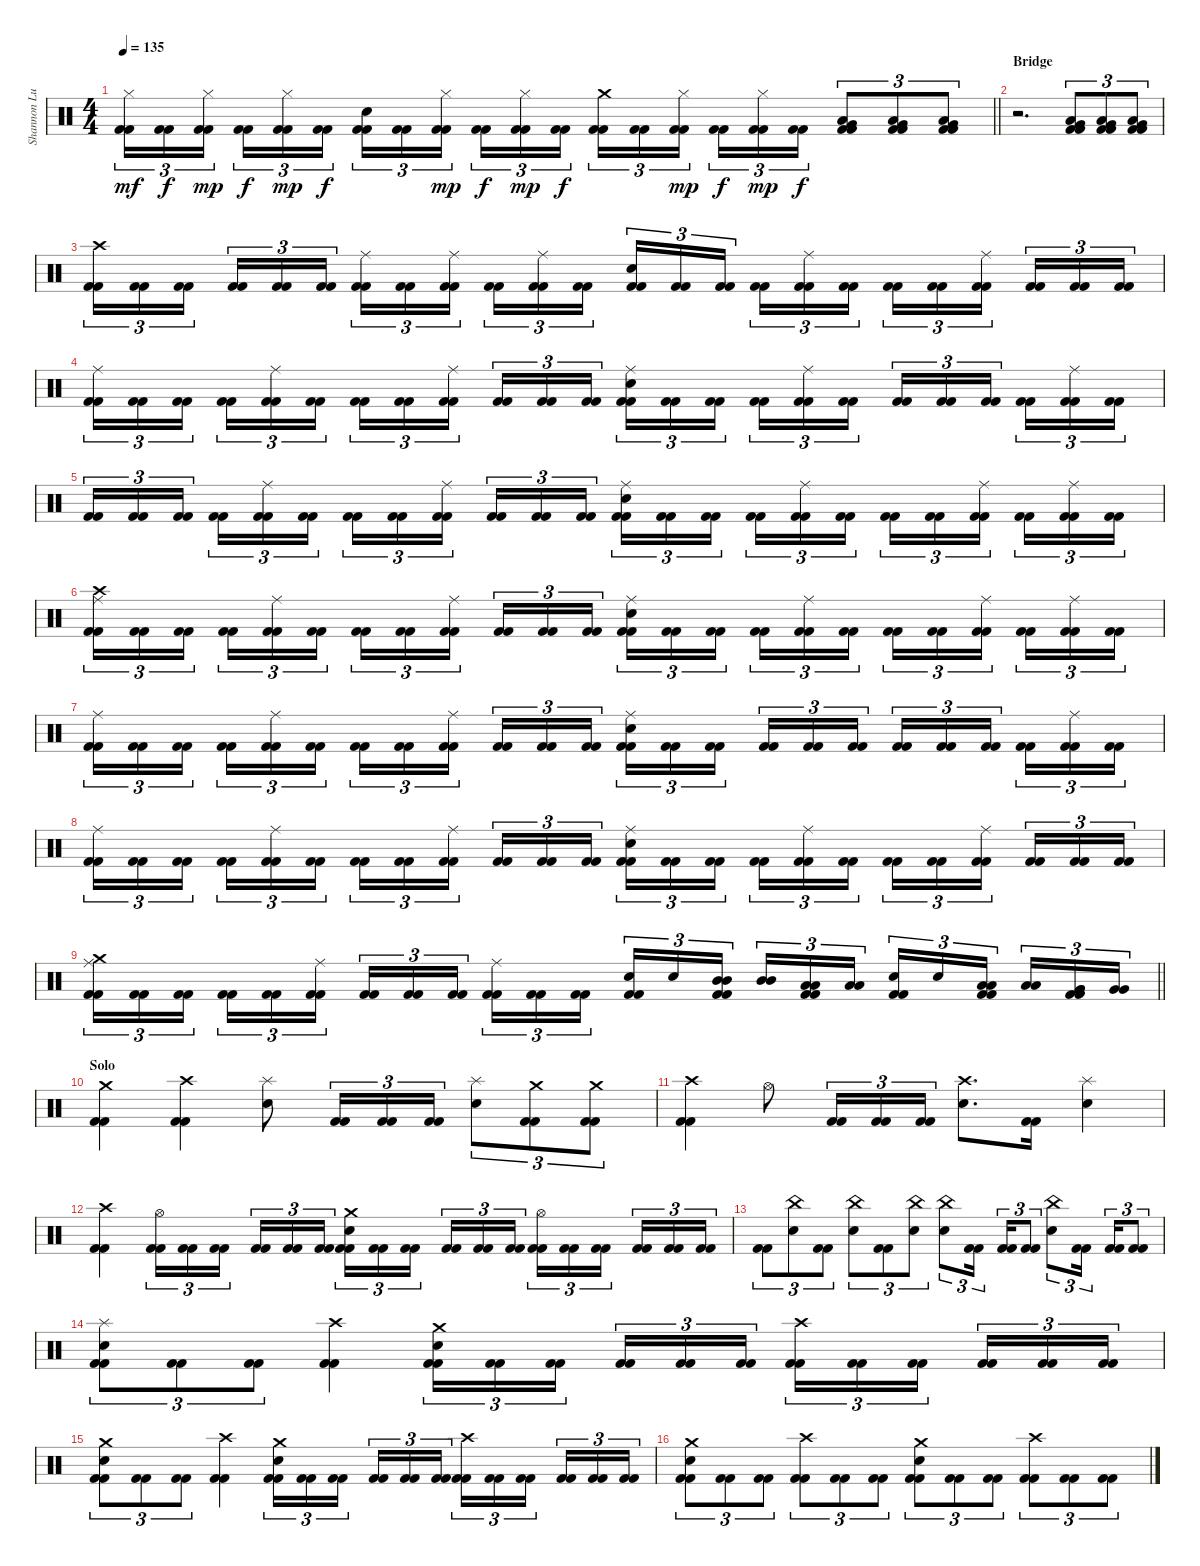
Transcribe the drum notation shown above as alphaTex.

\track ("Shannon Lucas" "Shannon Lu") {instrument percussion}
\staff {score}
\articulation defaults
\ts (4 4)
\tempo 135
\clef neutral
\barLineRight lightlight
\ks c
("Hi-Hat (closed)" "Kick (hit) 2" "Kick (hit) 2").16{tu (3 2) dy mf} ("Kick (hit) 2" "Kick (hit) 2").16{tu (3 2) dy f} ("Hi-Hat (closed)" "Kick (hit) 2" "Kick (hit) 2").16{tu (3 2) dy mp beam splitsecondary} ("Kick (hit) 2" "Kick (hit) 2").16{tu (3 2) dy f} ("Hi-Hat (closed)" "Kick (hit) 2" "Kick (hit) 2").16{tu (3 2) dy mp} ("Kick (hit) 2" "Kick (hit) 2").16{tu (3 2) dy f} ("Electric Snare (hit)" "Kick (hit) 2" "Kick (hit) 2").16{tu (3 2)} ("Kick (hit) 2" "Kick (hit) 2").16{tu (3 2)} ("Hi-Hat (closed)" "Kick (hit) 2" "Kick (hit) 2").16{tu (3 2) dy mp beam splitsecondary} ("Kick (hit) 2" "Kick (hit) 2").16{tu (3 2) dy f} ("Hi-Hat (closed)" "Kick (hit) 2" "Kick (hit) 2").16{tu (3 2) dy mp} ("Kick (hit) 2" "Kick (hit) 2").16{tu (3 2) dy f} ("Crash medium (hit)" "Kick (hit) 2" "Kick (hit) 2").16{tu (3 2)} ("Kick (hit) 2" "Kick (hit) 2").16{tu (3 2)} ("Hi-Hat (closed)" "Kick (hit) 2" "Kick (hit) 2").16{tu (3 2) dy mp beam splitsecondary} ("Kick (hit) 2" "Kick (hit) 2").16{tu (3 2) dy f} ("Hi-Hat (closed)" "Kick (hit) 2" "Kick (hit) 2").16{tu (3 2) dy mp} ("Kick (hit) 2" "Kick (hit) 2").16{tu (3 2) dy f} ("Very Low Tom (hit)" "Low Tom (hit)" "Kick (hit) 2" "Kick (hit) 2").8{tu (3 2)} ("Very Low Tom (hit)" "Low Floor Tom (hit)" "Kick (hit) 2" "Kick (hit) 2").8{tu (3 2)} ("Very Low Tom (hit)" "Low Tom (hit)" "Kick (hit) 2" "Kick (hit) 2").8{tu (3 2)} |
\section ("" "Bridge")
r.2{d} ("Very Low Tom (hit)" "Low Tom (hit)" "Kick (hit) 2" "Kick (hit) 2").8{tu (3 2)} ("Very Low Tom (hit)" "Low Floor Tom (hit)" "Kick (hit) 2" "Kick (hit) 2").8{tu (3 2)} ("Very Low Tom (hit)" "Low Tom (hit)" "Kick (hit) 2" "Kick (hit) 2").8{tu (3 2)} |
("Crash high (hit)" "Kick (hit) 2" "Kick (hit) 2").16{tu (3 2)} ("Kick (hit) 2" "Kick (hit) 2").16{tu (3 2)} ("Kick (hit) 2" "Kick (hit) 2").16{tu (3 2) beam splitsecondary} ("Kick (hit) 2" "Kick (hit) 2").16{tu (3 2)} ("Kick (hit) 2" "Kick (hit) 2").16{tu (3 2)} ("Kick (hit) 2" "Kick (hit) 2").16{tu (3 2)} ("Ride (middle)" "Kick (hit) 2" "Kick (hit) 2").16{tu (3 2)} ("Kick (hit) 2" "Kick (hit) 2").16{tu (3 2)} ("Ride (middle)" "Kick (hit) 2" "Kick (hit) 2").16{tu (3 2) beam splitsecondary} ("Kick (hit) 2" "Kick (hit) 2").16{tu (3 2)} ("Ride (middle)" "Kick (hit) 2" "Kick (hit) 2").16{tu (3 2)} ("Kick (hit) 2" "Kick (hit) 2").16{tu (3 2)} ("Electric Snare (hit)" "Kick (hit) 2" "Kick (hit) 2").16{tu (3 2)} ("Kick (hit) 2" "Kick (hit) 2").16{tu (3 2)} ("Kick (hit) 2" "Kick (hit) 2").16{tu (3 2) beam splitsecondary} ("Kick (hit) 2" "Kick (hit) 2").16{tu (3 2)} ("Ride (middle)" "Kick (hit) 2" "Kick (hit) 2").16{tu (3 2)} ("Kick (hit) 2" "Kick (hit) 2").16{tu (3 2)} ("Kick (hit) 2" "Kick (hit) 2").16{tu (3 2)} ("Kick (hit) 2" "Kick (hit) 2").16{tu (3 2)} ("Ride (middle)" "Kick (hit) 2" "Kick (hit) 2").16{tu (3 2) beam splitsecondary} ("Kick (hit) 2" "Kick (hit) 2").16{tu (3 2)} ("Kick (hit) 2" "Kick (hit) 2").16{tu (3 2)} ("Kick (hit) 2" "Kick (hit) 2").16{tu (3 2)} |
("Ride (middle)" "Kick (hit) 2" "Kick (hit) 2").16{tu (3 2)} ("Kick (hit) 2" "Kick (hit) 2").16{tu (3 2)} ("Kick (hit) 2" "Kick (hit) 2").16{tu (3 2) beam splitsecondary} ("Kick (hit) 2" "Kick (hit) 2").16{tu (3 2)} ("Ride (middle)" "Kick (hit) 2" "Kick (hit) 2").16{tu (3 2)} ("Kick (hit) 2" "Kick (hit) 2").16{tu (3 2)} ("Kick (hit) 2" "Kick (hit) 2").16{tu (3 2)} ("Kick (hit) 2" "Kick (hit) 2").16{tu (3 2)} ("Ride (middle)" "Kick (hit) 2" "Kick (hit) 2").16{tu (3 2) beam splitsecondary} ("Kick (hit) 2" "Kick (hit) 2").16{tu (3 2)} ("Kick (hit) 2" "Kick (hit) 2").16{tu (3 2)} ("Kick (hit) 2" "Kick (hit) 2").16{tu (3 2)} ("Ride (middle)" "Electric Snare (hit)" "Kick (hit) 2" "Kick (hit) 2").16{tu (3 2)} ("Kick (hit) 2" "Kick (hit) 2").16{tu (3 2)} ("Kick (hit) 2" "Kick (hit) 2").16{tu (3 2) beam splitsecondary} ("Kick (hit) 2" "Kick (hit) 2").16{tu (3 2)} ("Ride (middle)" "Kick (hit) 2" "Kick (hit) 2").16{tu (3 2)} ("Kick (hit) 2" "Kick (hit) 2").16{tu (3 2)} ("Kick (hit) 2" "Kick (hit) 2").16{tu (3 2)} ("Kick (hit) 2" "Kick (hit) 2").16{tu (3 2)} ("Kick (hit) 2" "Kick (hit) 2").16{tu (3 2) beam splitsecondary} ("Kick (hit) 2" "Kick (hit) 2").16{tu (3 2)} ("Ride (middle)" "Kick (hit) 2" "Kick (hit) 2").16{tu (3 2)} ("Kick (hit) 2" "Kick (hit) 2").16{tu (3 2)} |
("Kick (hit) 2" "Kick (hit) 2").16{tu (3 2)} ("Kick (hit) 2" "Kick (hit) 2").16{tu (3 2)} ("Kick (hit) 2" "Kick (hit) 2").16{tu (3 2) beam splitsecondary} ("Kick (hit) 2" "Kick (hit) 2").16{tu (3 2)} ("Ride (middle)" "Kick (hit) 2" "Kick (hit) 2").16{tu (3 2)} ("Kick (hit) 2" "Kick (hit) 2").16{tu (3 2)} ("Kick (hit) 2" "Kick (hit) 2").16{tu (3 2)} ("Kick (hit) 2" "Kick (hit) 2").16{tu (3 2)} ("Ride (middle)" "Kick (hit) 2" "Kick (hit) 2").16{tu (3 2) beam splitsecondary} ("Kick (hit) 2" "Kick (hit) 2").16{tu (3 2)} ("Kick (hit) 2" "Kick (hit) 2").16{tu (3 2)} ("Kick (hit) 2" "Kick (hit) 2").16{tu (3 2)} ("Ride (middle)" "Electric Snare (hit)" "Kick (hit) 2" "Kick (hit) 2").16{tu (3 2)} ("Kick (hit) 2" "Kick (hit) 2").16{tu (3 2)} ("Kick (hit) 2" "Kick (hit) 2").16{tu (3 2) beam splitsecondary} ("Kick (hit) 2" "Kick (hit) 2").16{tu (3 2)} ("Ride (middle)" "Kick (hit) 2" "Kick (hit) 2").16{tu (3 2)} ("Kick (hit) 2" "Kick (hit) 2").16{tu (3 2)} ("Kick (hit) 2" "Kick (hit) 2").16{tu (3 2)} ("Kick (hit) 2" "Kick (hit) 2").16{tu (3 2)} ("Ride (middle)" "Kick (hit) 2" "Kick (hit) 2").16{tu (3 2) beam splitsecondary} ("Kick (hit) 2" "Kick (hit) 2").16{tu (3 2)} ("Ride (middle)" "Kick (hit) 2" "Kick (hit) 2").16{tu (3 2)} ("Kick (hit) 2" "Kick (hit) 2").16{tu (3 2)} |
("Crash high (hit)" "Ride (middle)" "Kick (hit) 2" "Kick (hit) 2").16{tu (3 2)} ("Kick (hit) 2" "Kick (hit) 2").16{tu (3 2)} ("Kick (hit) 2" "Kick (hit) 2").16{tu (3 2) beam splitsecondary} ("Kick (hit) 2" "Kick (hit) 2").16{tu (3 2)} ("Ride (middle)" "Kick (hit) 2" "Kick (hit) 2").16{tu (3 2)} ("Kick (hit) 2" "Kick (hit) 2").16{tu (3 2)} ("Kick (hit) 2" "Kick (hit) 2").16{tu (3 2)} ("Kick (hit) 2" "Kick (hit) 2").16{tu (3 2)} ("Ride (middle)" "Kick (hit) 2" "Kick (hit) 2").16{tu (3 2) beam splitsecondary} ("Kick (hit) 2" "Kick (hit) 2").16{tu (3 2)} ("Kick (hit) 2" "Kick (hit) 2").16{tu (3 2)} ("Kick (hit) 2" "Kick (hit) 2").16{tu (3 2)} ("Ride (middle)" "Electric Snare (hit)" "Kick (hit) 2" "Kick (hit) 2").16{tu (3 2)} ("Kick (hit) 2" "Kick (hit) 2").16{tu (3 2)} ("Kick (hit) 2" "Kick (hit) 2").16{tu (3 2) beam splitsecondary} ("Kick (hit) 2" "Kick (hit) 2").16{tu (3 2)} ("Ride (middle)" "Kick (hit) 2" "Kick (hit) 2").16{tu (3 2)} ("Kick (hit) 2" "Kick (hit) 2").16{tu (3 2)} ("Kick (hit) 2" "Kick (hit) 2").16{tu (3 2)} ("Kick (hit) 2" "Kick (hit) 2").16{tu (3 2)} ("Ride (middle)" "Kick (hit) 2" "Kick (hit) 2").16{tu (3 2) beam splitsecondary} ("Kick (hit) 2" "Kick (hit) 2").16{tu (3 2)} ("Ride (middle)" "Kick (hit) 2" "Kick (hit) 2").16{tu (3 2)} ("Kick (hit) 2" "Kick (hit) 2").16{tu (3 2)} |
("Ride (middle)" "Kick (hit) 2" "Kick (hit) 2").16{tu (3 2)} ("Kick (hit) 2" "Kick (hit) 2").16{tu (3 2)} ("Kick (hit) 2" "Kick (hit) 2").16{tu (3 2) beam splitsecondary} ("Kick (hit) 2" "Kick (hit) 2").16{tu (3 2)} ("Ride (middle)" "Kick (hit) 2" "Kick (hit) 2").16{tu (3 2)} ("Kick (hit) 2" "Kick (hit) 2").16{tu (3 2)} ("Kick (hit) 2" "Kick (hit) 2").16{tu (3 2)} ("Kick (hit) 2" "Kick (hit) 2").16{tu (3 2)} ("Ride (middle)" "Kick (hit) 2" "Kick (hit) 2").16{tu (3 2) beam splitsecondary} ("Kick (hit) 2" "Kick (hit) 2").16{tu (3 2)} ("Kick (hit) 2" "Kick (hit) 2").16{tu (3 2)} ("Kick (hit) 2" "Kick (hit) 2").16{tu (3 2)} ("Ride (middle)" "Electric Snare (hit)" "Kick (hit) 2" "Kick (hit) 2").16{tu (3 2)} ("Kick (hit) 2" "Kick (hit) 2").16{tu (3 2)} ("Kick (hit) 2" "Kick (hit) 2").16{tu (3 2) beam splitsecondary} ("Kick (hit) 2" "Kick (hit) 2").16{tu (3 2)} ("Kick (hit) 2" "Kick (hit) 2").16{tu (3 2)} ("Kick (hit) 2" "Kick (hit) 2").16{tu (3 2)} ("Kick (hit) 2" "Kick (hit) 2").16{tu (3 2)} ("Kick (hit) 2" "Kick (hit) 2").16{tu (3 2)} ("Kick (hit) 2" "Kick (hit) 2").16{tu (3 2) beam splitsecondary} ("Kick (hit) 2" "Kick (hit) 2").16{tu (3 2)} ("Ride (middle)" "Kick (hit) 2" "Kick (hit) 2").16{tu (3 2)} ("Kick (hit) 2" "Kick (hit) 2").16{tu (3 2)} |
("Ride (middle)" "Kick (hit) 2" "Kick (hit) 2").16{tu (3 2)} ("Kick (hit) 2" "Kick (hit) 2").16{tu (3 2)} ("Kick (hit) 2" "Kick (hit) 2").16{tu (3 2) beam splitsecondary} ("Kick (hit) 2" "Kick (hit) 2").16{tu (3 2)} ("Ride (middle)" "Kick (hit) 2" "Kick (hit) 2").16{tu (3 2)} ("Kick (hit) 2" "Kick (hit) 2").16{tu (3 2)} ("Kick (hit) 2" "Kick (hit) 2").16{tu (3 2)} ("Kick (hit) 2" "Kick (hit) 2").16{tu (3 2)} ("Ride (middle)" "Kick (hit) 2" "Kick (hit) 2").16{tu (3 2) beam splitsecondary} ("Kick (hit) 2" "Kick (hit) 2").16{tu (3 2)} ("Kick (hit) 2" "Kick (hit) 2").16{tu (3 2)} ("Kick (hit) 2" "Kick (hit) 2").16{tu (3 2)} ("Ride (middle)" "Electric Snare (hit)" "Kick (hit) 2" "Kick (hit) 2").16{tu (3 2)} ("Kick (hit) 2" "Kick (hit) 2").16{tu (3 2)} ("Kick (hit) 2" "Kick (hit) 2").16{tu (3 2) beam splitsecondary} ("Kick (hit) 2" "Kick (hit) 2").16{tu (3 2)} ("Ride (middle)" "Kick (hit) 2" "Kick (hit) 2").16{tu (3 2)} ("Kick (hit) 2" "Kick (hit) 2").16{tu (3 2)} ("Kick (hit) 2" "Kick (hit) 2").16{tu (3 2)} ("Kick (hit) 2" "Kick (hit) 2").16{tu (3 2)} ("Ride (middle)" "Kick (hit) 2" "Kick (hit) 2").16{tu (3 2) beam splitsecondary} ("Kick (hit) 2" "Kick (hit) 2").16{tu (3 2)} ("Kick (hit) 2" "Kick (hit) 2").16{tu (3 2)} ("Kick (hit) 2" "Kick (hit) 2").16{tu (3 2)} |
\barLineRight lightlight
("Crash medium (hit)" "Ride (middle)" "Kick (hit) 2" "Kick (hit) 2").16{tu (3 2)} ("Kick (hit) 2" "Kick (hit) 2").16{tu (3 2)} ("Kick (hit) 2" "Kick (hit) 2").16{tu (3 2) beam splitsecondary} ("Kick (hit) 2" "Kick (hit) 2").16{tu (3 2)} ("Kick (hit) 2" "Kick (hit) 2").16{tu (3 2)} ("Ride (middle)" "Kick (hit) 2" "Kick (hit) 2").16{tu (3 2)} ("Kick (hit) 2" "Kick (hit) 2").16{tu (3 2)} ("Kick (hit) 2" "Kick (hit) 2").16{tu (3 2)} ("Kick (hit) 2" "Kick (hit) 2").16{tu (3 2) beam splitsecondary} ("Ride (middle)" "Kick (hit) 2" "Kick (hit) 2").16{tu (3 2)} ("Kick (hit) 2" "Kick (hit) 2").16{tu (3 2)} ("Kick (hit) 2" "Kick (hit) 2").16{tu (3 2)} ("Kick (hit) 2" "Kick (hit) 2" "Electric Snare (hit)").16{tu (3 2)} "Electric Snare (hit)".16{tu (3 2)} ("Kick (hit) 2" "Kick (hit) 2" "Mid Tom (hit)" "Mid Tom (hit)").16{tu (3 2) beam splitsecondary} ("Mid Tom (hit)" "Mid Tom (hit)").16{tu (3 2)} ("Kick (hit) 2" "Kick (hit) 2" "Low Tom (hit)" "Low Tom (hit)").16{tu (3 2)} ("Low Tom (hit)" "Low Tom (hit)").16{tu (3 2)} ("Kick (hit) 2" "Kick (hit) 2" "Electric Snare (hit)").16{tu (3 2)} "Electric Snare (hit)".16{tu (3 2)} ("Kick (hit) 2" "Kick (hit) 2" "Low Tom (hit)" "Low Tom (hit)").16{tu (3 2) beam splitsecondary} ("Low Tom (hit)" "Low Tom (hit)").16{tu (3 2)} ("Kick (hit) 2" "Kick (hit) 2" "Very Low Tom (hit)" "Very Low Tom (hit)").16{tu (3 2)} ("Very Low Tom (hit)" "Very Low Tom (hit)").16{tu (3 2)} |
\section ("" "Solo")
("Crash medium (hit)" "Kick (hit) 2" "Kick (hit) 2").4 ("Crash high (hit)" "Kick (hit) 2" "Kick (hit) 2").4 ("Splash (hit)" "Electric Snare (hit)").8 ("Kick (hit) 2" "Kick (hit) 2").16{tu (3 2)} ("Kick (hit) 2" "Kick (hit) 2").16{tu (3 2)} ("Kick (hit) 2" "Kick (hit) 2").16{tu (3 2)} ("Splash (hit)" "Electric Snare (hit)").8{tu (3 2)} ("Crash medium (hit)" "Kick (hit) 2" "Kick (hit) 2").8{tu (3 2)} ("Crash medium (hit)" "Kick (hit) 2" "Kick (hit) 2").8{tu (3 2)} |
("Crash high (hit)" "Kick (hit) 2" "Kick (hit) 2").4 "Hi-Hat (open)".8 ("Kick (hit) 2" "Kick (hit) 2").16{tu (3 2)} ("Kick (hit) 2" "Kick (hit) 2").16{tu (3 2)} ("Kick (hit) 2" "Kick (hit) 2").16{tu (3 2)} ("Crash high (hit)" "Electric Snare (hit)").8{d} ("Kick (hit) 2" "Kick (hit) 2").16 ("Splash (hit)" "Electric Snare (hit)").4 |
("Crash high (hit)" "Kick (hit) 2" "Kick (hit) 2").4 ("Hi-Hat (open)" "Kick (hit) 2" "Kick (hit) 2").16{tu (3 2)} ("Kick (hit) 2" "Kick (hit) 2").16{tu (3 2)} ("Kick (hit) 2" "Kick (hit) 2").16{tu (3 2) beam splitsecondary} ("Kick (hit) 2" "Kick (hit) 2").16{tu (3 2)} ("Kick (hit) 2" "Kick (hit) 2").16{tu (3 2)} ("Kick (hit) 2" "Kick (hit) 2").16{tu (3 2)} ("Crash medium (hit)" "Electric Snare (hit)" "Kick (hit) 2" "Kick (hit) 2").16{tu (3 2)} ("Kick (hit) 2" "Kick (hit) 2").16{tu (3 2)} ("Kick (hit) 2" "Kick (hit) 2").16{tu (3 2) beam splitsecondary} ("Kick (hit) 2" "Kick (hit) 2").16{tu (3 2)} ("Kick (hit) 2" "Kick (hit) 2").16{tu (3 2)} ("Kick (hit) 2" "Kick (hit) 2").16{tu (3 2)} ("Hi-Hat (open)" "Kick (hit) 2" "Kick (hit) 2").16{tu (3 2)} ("Kick (hit) 2" "Kick (hit) 2").16{tu (3 2)} ("Kick (hit) 2" "Kick (hit) 2").16{tu (3 2) beam splitsecondary} ("Kick (hit) 2" "Kick (hit) 2").16{tu (3 2)} ("Kick (hit) 2" "Kick (hit) 2").16{tu (3 2)} ("Kick (hit) 2" "Kick (hit) 2").16{tu (3 2)} |
("Kick (hit) 2" "Kick (hit) 2").8{tu (3 2)} ("China (hit)" "Electric Snare (hit)").8{tu (3 2)} ("Kick (hit) 2" "Kick (hit) 2").8{tu (3 2)} ("China (hit)" "Electric Snare (hit)").8{tu (3 2)} ("Kick (hit) 2" "Kick (hit) 2").8{tu (3 2)} ("China (hit)" "Electric Snare (hit)").8{tu (3 2)} ("China (hit)" "Electric Snare (hit)").8{tu (3 2)} ("Kick (hit) 2" "Kick (hit) 2").16{tu (3 2) beam splitsecondary} ("Kick (hit) 2" "Kick (hit) 2").16{tu (3 2)} ("Kick (hit) 2" "Kick (hit) 2").8{tu (3 2)} ("China (hit)" "Electric Snare (hit)").8{tu (3 2)} ("Kick (hit) 2" "Kick (hit) 2").16{tu (3 2) beam splitsecondary} ("Kick (hit) 2" "Kick (hit) 2").16{tu (3 2)} ("Kick (hit) 2" "Kick (hit) 2").8{tu (3 2)} |
("Splash (hit)" "Electric Snare (hit)" "Kick (hit) 2" "Kick (hit) 2").8{tu (3 2)} ("Kick (hit) 2" "Kick (hit) 2").8{tu (3 2)} ("Kick (hit) 2" "Kick (hit) 2").8{tu (3 2)} ("Crash high (hit)" "Kick (hit) 2" "Kick (hit) 2").4 ("Crash medium (hit)" "Electric Snare (hit)" "Kick (hit) 2" "Kick (hit) 2").16{tu (3 2)} ("Kick (hit) 2" "Kick (hit) 2").16{tu (3 2)} ("Kick (hit) 2" "Kick (hit) 2").16{tu (3 2) beam splitsecondary} ("Kick (hit) 2" "Kick (hit) 2").16{tu (3 2)} ("Kick (hit) 2" "Kick (hit) 2").16{tu (3 2)} ("Kick (hit) 2" "Kick (hit) 2").16{tu (3 2)} ("Crash high (hit)" "Kick (hit) 2" "Kick (hit) 2").16{tu (3 2)} ("Kick (hit) 2" "Kick (hit) 2").16{tu (3 2)} ("Kick (hit) 2" "Kick (hit) 2").16{tu (3 2) beam splitsecondary} ("Kick (hit) 2" "Kick (hit) 2").16{tu (3 2)} ("Kick (hit) 2" "Kick (hit) 2").16{tu (3 2)} ("Kick (hit) 2" "Kick (hit) 2").16{tu (3 2)} |
("Crash medium (hit)" "Electric Snare (hit)" "Kick (hit) 2" "Kick (hit) 2").8{tu (3 2)} ("Kick (hit) 2" "Kick (hit) 2").8{tu (3 2)} ("Kick (hit) 2" "Kick (hit) 2").8{tu (3 2)} ("Crash high (hit)" "Kick (hit) 2" "Kick (hit) 2").4 ("Crash medium (hit)" "Electric Snare (hit)" "Kick (hit) 2" "Kick (hit) 2").16{tu (3 2)} ("Kick (hit) 2" "Kick (hit) 2").16{tu (3 2)} ("Kick (hit) 2" "Kick (hit) 2").16{tu (3 2) beam splitsecondary} ("Kick (hit) 2" "Kick (hit) 2").16{tu (3 2)} ("Kick (hit) 2" "Kick (hit) 2").16{tu (3 2)} ("Kick (hit) 2" "Kick (hit) 2").16{tu (3 2)} ("Crash high (hit)" "Kick (hit) 2" "Kick (hit) 2").16{tu (3 2)} ("Kick (hit) 2" "Kick (hit) 2").16{tu (3 2)} ("Kick (hit) 2" "Kick (hit) 2").16{tu (3 2) beam splitsecondary} ("Kick (hit) 2" "Kick (hit) 2").16{tu (3 2)} ("Kick (hit) 2" "Kick (hit) 2").16{tu (3 2)} ("Kick (hit) 2" "Kick (hit) 2").16{tu (3 2)} |
("Crash medium (hit)" "Electric Snare (hit)" "Kick (hit) 2" "Kick (hit) 2").8{tu (3 2)} ("Kick (hit) 2" "Kick (hit) 2").8{tu (3 2)} ("Kick (hit) 2" "Kick (hit) 2").8{tu (3 2)} ("Crash high (hit)" "Kick (hit) 2" "Kick (hit) 2").8{tu (3 2)} ("Kick (hit) 2" "Kick (hit) 2").8{tu (3 2)} ("Kick (hit) 2" "Kick (hit) 2").8{tu (3 2)} ("Crash medium (hit)" "Electric Snare (hit)" "Kick (hit) 2" "Kick (hit) 2").8{tu (3 2)} ("Kick (hit) 2" "Kick (hit) 2").8{tu (3 2)} ("Kick (hit) 2" "Kick (hit) 2").8{tu (3 2)} ("Crash high (hit)" "Kick (hit) 2" "Kick (hit) 2").8{tu (3 2)} ("Kick (hit) 2" "Kick (hit) 2").8{tu (3 2)} ("Kick (hit) 2" "Kick (hit) 2").8{tu (3 2)}
